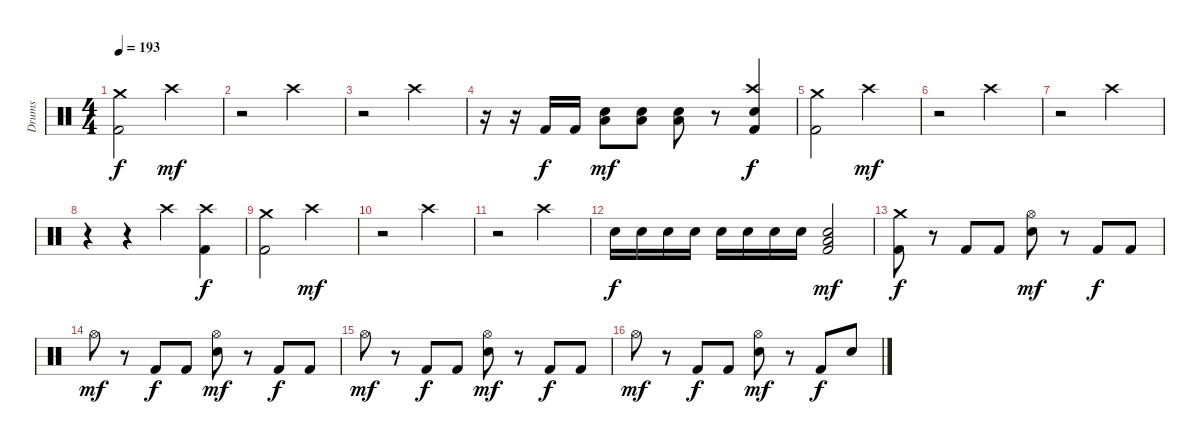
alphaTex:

\track ("Drums" "Drums") {instrument percussion}
\staff {score}
\articulation defaults
\ts (4 4)
\tempo 193
\clef neutral
\ks c
("Crash medium (hit)" "Kick (hit) 2").2{dy f} "Crash high (hit)".2{dy mf} |
r.2 "Crash high (hit)".2 |
r.2 "Crash high (hit)".2 |
r.16 r.16 "Kick (hit) 2".16{dy f} "Kick (hit) 2".16 ("Low Floor Tom (hit)" "Snare (hit) 2").8{dy mf} ("Low Floor Tom (hit)" "Snare (hit) 2").8 ("Low Floor Tom (hit)" "Snare (hit) 2").8 r.8 ("Crash high (hit)" "Snare (hit) 2" "Kick (hit) 2").4{dy f} |
("Crash medium (hit)" "Kick (hit) 2").2 "Crash high (hit)".2{dy mf} |
r.2 "Crash high (hit)".2 |
r.2 "Crash high (hit)".2 |
r.4 r.4 "Crash high (hit)".4 ("Crash high (hit)" "Kick (hit) 2").4{dy f} |
("Crash medium (hit)" "Kick (hit) 2").2 "Crash high (hit)".2{dy mf} |
r.2 "Crash high (hit)".2 |
r.2 "Crash high (hit)".2 |
"Snare (hit) 2".16{dy f} "Snare (hit) 2".16 "Snare (hit) 2".16 "Snare (hit) 2".16 "Snare (hit) 2".16 "Snare (hit) 2".16 "Snare (hit) 2".16 "Snare (hit) 2".16 ("Low Floor Tom (hit)" "Snare (hit) 2" "Kick (hit) 2").2{dy mf} |
("Crash medium (hit)" "Kick (hit) 2").8{dy f} r.8 "Kick (hit) 2".8 "Kick (hit) 2".8 ("Hi-Hat (open)" "Snare (hit) 2").8{dy mf} r.8 "Kick (hit) 2".8{dy f} "Kick (hit) 2".8 |
"Hi-Hat (open)".8{dy mf} r.8 "Kick (hit) 2".8{dy f} "Kick (hit) 2".8 ("Hi-Hat (open)" "Snare (hit) 2").8{dy mf} r.8 "Kick (hit) 2".8{dy f} "Kick (hit) 2".8 |
"Hi-Hat (open)".8{dy mf} r.8 "Kick (hit) 2".8{dy f} "Kick (hit) 2".8 ("Hi-Hat (open)" "Snare (hit) 2").8{dy mf} r.8 "Kick (hit) 2".8{dy f} "Kick (hit) 2".8 |
"Hi-Hat (open)".8{dy mf} r.8 "Kick (hit) 2".8{dy f} "Kick (hit) 2".8 ("Hi-Hat (open)" "Snare (hit) 2").8{dy mf} r.8 "Kick (hit) 2".8{dy f} "Snare (hit) 2".8
